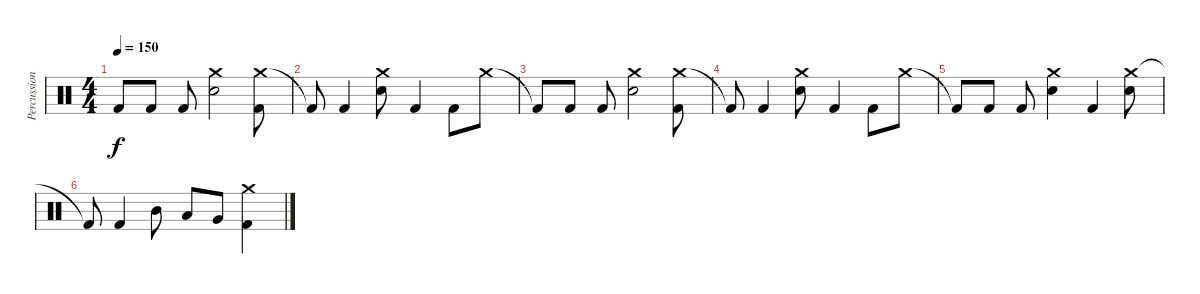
\track ("Percussion" "Percussion") {instrument percussion}
\staff {score}
\articulation defaults
\ts (4 4)
\tempo 150
\clef neutral
\ks c "Kick (hit) 2"{t}.8{dy f} "Kick (hit) 2".8 "Kick (hit) 2".8
("Crash medium (hit)" "Electric Snare (hit)").2 ("Crash medium (hit)" "Kick (hit) 2").8 |
"Kick (hit) 2"{t}.8 "Kick (hit) 2".4 ("Crash medium (hit)" "Electric Snare (hit)").8 "Kick (hit) 2".4 "Kick (hit) 2".8 "Crash medium (hit)".8 |
"Kick (hit) 2"{t}.8 "Kick (hit) 2".8 "Kick (hit) 2".8 ("Crash medium (hit)" "Electric Snare (hit)").2 ("Crash medium (hit)" "Kick (hit) 2").8 |
"Kick (hit) 2"{t}.8 "Kick (hit) 2".4 ("Crash medium (hit)" "Electric Snare (hit)").8 "Kick (hit) 2".4 "Kick (hit) 2".8 "Crash medium (hit)".8 |
"Kick (hit) 2"{t}.8 "Kick (hit) 2".8 "Kick (hit) 2".8 ("Crash medium (hit)" "Electric Snare (hit)").4 "Kick (hit) 2".4 ("Crash medium (hit)" "Electric Snare (hit)").8 |
"Kick (hit) 2"{t}.8 "Kick (hit) 2".4 "Mid Tom (hit)".8 "Low Tom (hit)".8 "Very Low Tom (hit)".8 ("Crash medium (hit)" "Kick (hit) 2").4
